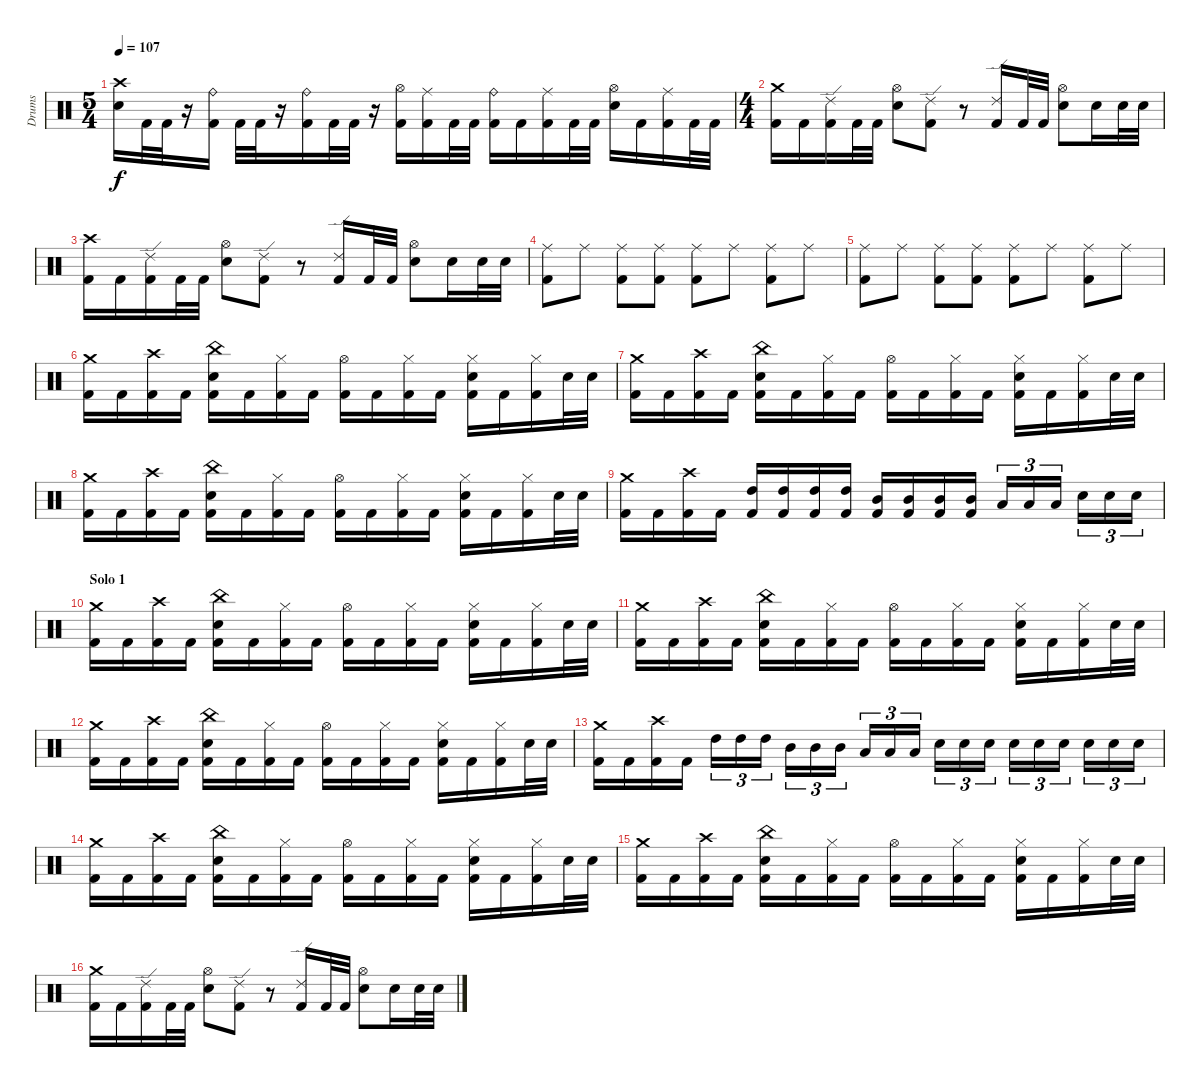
\track ("Drums" "Drums") {instrument percussion}
\staff {score}
\articulation defaults
\ts (5 4)
\tempo 107
\clef neutral
\ks c
("Crash high (hit)" "Snare (hit) 2").16{dy f} "Kick (hit) 2".32 "Kick (hit) 2".32 r.16 ("Ride (bell)" "Kick (hit) 2").16 "Kick (hit) 2".32 "Kick (hit) 2".32 r.16 ("Ride (bell)" "Kick (hit) 2").16 "Kick (hit) 2".32 "Kick (hit) 2".32 r.16 ("Hi-Hat (open)" "Kick (hit) 2").16 ("Ride (middle)" "Kick (hit) 2").16 "Kick (hit) 2".32 "Kick (hit) 2".32 ("Ride (bell)" "Kick (hit) 2").16 "Kick (hit) 2".16 ("Ride (middle)" "Kick (hit) 2").16 "Kick (hit) 2".32 "Kick (hit) 2".32 ("Hi-Hat (open)" "Snare (hit) 2").16 "Kick (hit) 2".16 ("Ride (middle)" "Kick (hit) 2").16 "Kick (hit) 2".32 "Kick (hit) 2".32 |
\ts (4 4)
("Crash medium (hit)" "Kick (hit) 2").16 "Kick (hit) 2".16 ("Ride (edge) 2" "Kick (hit) 2").16 "Kick (hit) 2".32 "Kick (hit) 2".32 ("Hi-Hat (open)" "Snare (hit) 2").8 ("Ride (edge) 2" "Kick (hit) 2").8 r.8 ("Ride (edge) 2" "Kick (hit) 2").16 "Kick (hit) 2".32 "Kick (hit) 2".32 ("Hi-Hat (open)" "Snare (hit) 2").8 "Electric Snare (hit)".16 "Electric Snare (hit)".32 "Electric Snare (hit)".32 |
("Crash high (hit)" "Kick (hit) 2").16 "Kick (hit) 2".16 ("Ride (edge) 2" "Kick (hit) 2").16 "Kick (hit) 2".32 "Kick (hit) 2".32 ("Hi-Hat (open)" "Snare (hit) 2").8 ("Ride (edge) 2" "Kick (hit) 2").8 r.8 ("Ride (edge) 2" "Kick (hit) 2").16 "Kick (hit) 2".32 "Kick (hit) 2".32 ("Hi-Hat (open)" "Snare (hit) 2").8 "Electric Snare (hit)".16 "Electric Snare (hit)".32 "Electric Snare (hit)".32 |
("Ride (middle)" "Kick (hit) 2").8 "Ride (middle)".8 ("Ride (middle)" "Kick (hit) 2").8 ("Ride (middle)" "Kick (hit) 2").8 ("Ride (middle)" "Kick (hit) 2").8 "Ride (middle)".8 ("Ride (middle)" "Kick (hit) 2").8 "Ride (middle)".8 |
("Ride (middle)" "Kick (hit) 2").8 "Ride (middle)".8 ("Ride (middle)" "Kick (hit) 2").8 ("Ride (middle)" "Kick (hit) 2").8 ("Ride (middle)" "Kick (hit) 2").8 "Ride (middle)".8 ("Ride (middle)" "Kick (hit) 2").8 "Ride (middle)".8 |
("Crash medium (hit)" "Kick (hit) 2").16 "Kick (hit) 2".16 ("Crash high (hit)" "Kick (hit) 2").16 "Kick (hit) 2".16 ("China (hit)" "Snare (hit) 2" "Kick (hit) 2").16 "Kick (hit) 2".16 ("Hi-Hat (closed)" "Kick (hit) 2").16 "Kick (hit) 2".16 ("Hi-Hat (open)" "Kick (hit) 2").16 "Kick (hit) 2".16 ("Hi-Hat (closed)" "Kick (hit) 2").16 "Kick (hit) 2".16 ("Hi-Hat (closed)" "Snare (hit) 2" "Kick (hit) 2").16 "Kick (hit) 2".16 ("Hi-Hat (closed)" "Kick (hit) 2").16 "Electric Snare (hit)".32 "Electric Snare (hit)".32 |
("Crash medium (hit)" "Kick (hit) 2").16 "Kick (hit) 2".16 ("Crash high (hit)" "Kick (hit) 2").16 "Kick (hit) 2".16 ("China (hit)" "Snare (hit) 2" "Kick (hit) 2").16 "Kick (hit) 2".16 ("Hi-Hat (closed)" "Kick (hit) 2").16 "Kick (hit) 2".16 ("Hi-Hat (open)" "Kick (hit) 2").16 "Kick (hit) 2".16 ("Hi-Hat (closed)" "Kick (hit) 2").16 "Kick (hit) 2".16 ("Hi-Hat (closed)" "Snare (hit) 2" "Kick (hit) 2").16 "Kick (hit) 2".16 ("Hi-Hat (closed)" "Kick (hit) 2").16 "Electric Snare (hit)".32 "Electric Snare (hit)".32 |
("Crash medium (hit)" "Kick (hit) 2").16 "Kick (hit) 2".16 ("Crash high (hit)" "Kick (hit) 2").16 "Kick (hit) 2".16 ("China (hit)" "Snare (hit) 2" "Kick (hit) 2").16 "Kick (hit) 2".16 ("Hi-Hat (closed)" "Kick (hit) 2").16 "Kick (hit) 2".16 ("Hi-Hat (open)" "Kick (hit) 2").16 "Kick (hit) 2".16 ("Hi-Hat (closed)" "Kick (hit) 2").16 "Kick (hit) 2".16 ("Hi-Hat (closed)" "Snare (hit) 2" "Kick (hit) 2").16 "Kick (hit) 2".16 ("Hi-Hat (closed)" "Kick (hit) 2").16 "Electric Snare (hit)".32 "Electric Snare (hit)".32 |
("Crash medium (hit)" "Kick (hit) 2").16 "Kick (hit) 2".16 ("Crash high (hit)" "Kick (hit) 2").16 "Kick (hit) 2".16 ("High Tom (hit)" "Kick (hit) 2").16 ("High Tom (hit)" "Kick (hit) 2").16 ("High Tom (hit)" "Kick (hit) 2").16 ("High Tom (hit)" "Kick (hit) 2").16 ("Mid Tom (hit)" "Kick (hit) 2").16 ("Mid Tom (hit)" "Kick (hit) 2").16 ("Mid Tom (hit)" "Kick (hit) 2").16 ("Mid Tom (hit)" "Kick (hit) 2").16 "Low Tom (hit)".16{tu (3 2)} "Low Tom (hit)".16{tu (3 2)} "Low Tom (hit)".16{tu (3 2)} "Snare (hit) 2".16{tu (3 2)} "Snare (hit) 2".16{tu (3 2)} "Snare (hit) 2".16{tu (3 2)} |
\section ("" "Solo 1")
("Crash medium (hit)" "Kick (hit) 2").16 "Kick (hit) 2".16 ("Crash high (hit)" "Kick (hit) 2").16 "Kick (hit) 2".16 ("China (hit)" "Snare (hit) 2" "Kick (hit) 2").16 "Kick (hit) 2".16 ("Hi-Hat (closed)" "Kick (hit) 2").16 "Kick (hit) 2".16 ("Hi-Hat (open)" "Kick (hit) 2").16 "Kick (hit) 2".16 ("Hi-Hat (closed)" "Kick (hit) 2").16 "Kick (hit) 2".16 ("Hi-Hat (closed)" "Snare (hit) 2" "Kick (hit) 2").16 "Kick (hit) 2".16 ("Hi-Hat (closed)" "Kick (hit) 2").16 "Electric Snare (hit)".32 "Electric Snare (hit)".32 |
("Crash medium (hit)" "Kick (hit) 2").16 "Kick (hit) 2".16 ("Crash high (hit)" "Kick (hit) 2").16 "Kick (hit) 2".16 ("China (hit)" "Snare (hit) 2" "Kick (hit) 2").16 "Kick (hit) 2".16 ("Hi-Hat (closed)" "Kick (hit) 2").16 "Kick (hit) 2".16 ("Hi-Hat (open)" "Kick (hit) 2").16 "Kick (hit) 2".16 ("Hi-Hat (closed)" "Kick (hit) 2").16 "Kick (hit) 2".16 ("Hi-Hat (closed)" "Snare (hit) 2" "Kick (hit) 2").16 "Kick (hit) 2".16 ("Hi-Hat (closed)" "Kick (hit) 2").16 "Electric Snare (hit)".32 "Electric Snare (hit)".32 |
("Crash medium (hit)" "Kick (hit) 2").16 "Kick (hit) 2".16 ("Crash high (hit)" "Kick (hit) 2").16 "Kick (hit) 2".16 ("China (hit)" "Snare (hit) 2" "Kick (hit) 2").16 "Kick (hit) 2".16 ("Hi-Hat (closed)" "Kick (hit) 2").16 "Kick (hit) 2".16 ("Hi-Hat (open)" "Kick (hit) 2").16 "Kick (hit) 2".16 ("Hi-Hat (closed)" "Kick (hit) 2").16 "Kick (hit) 2".16 ("Hi-Hat (closed)" "Snare (hit) 2" "Kick (hit) 2").16 "Kick (hit) 2".16 ("Hi-Hat (closed)" "Kick (hit) 2").16 "Electric Snare (hit)".32 "Electric Snare (hit)".32 |
("Crash medium (hit)" "Kick (hit) 2").16 "Kick (hit) 2".16 ("Crash high (hit)" "Kick (hit) 2").16 "Kick (hit) 2".16 "High Tom (hit)".16{tu (3 2)} "High Tom (hit)".16{tu (3 2)} "High Tom (hit)".16{tu (3 2)} "Mid Tom (hit)".16{tu (3 2)} "Mid Tom (hit)".16{tu (3 2)} "Mid Tom (hit)".16{tu (3 2)} "Low Tom (hit)".16{tu (3 2)} "Low Tom (hit)".16{tu (3 2)} "Low Tom (hit)".16{tu (3 2)} "Snare (hit) 2".16{tu (3 2)} "Snare (hit) 2".16{tu (3 2)} "Snare (hit) 2".16{tu (3 2)} "Snare (hit) 2".16{tu (3 2)} "Snare (hit) 2".16{tu (3 2)} "Snare (hit) 2".16{tu (3 2)} "Electric Snare (hit)".16{tu (3 2)} "Electric Snare (hit)".16{tu (3 2)} "Electric Snare (hit)".16{tu (3 2)} |
("Crash medium (hit)" "Kick (hit) 2").16 "Kick (hit) 2".16 ("Crash high (hit)" "Kick (hit) 2").16 "Kick (hit) 2".16 ("China (hit)" "Snare (hit) 2" "Kick (hit) 2").16 "Kick (hit) 2".16 ("Hi-Hat (closed)" "Kick (hit) 2").16 "Kick (hit) 2".16 ("Hi-Hat (open)" "Kick (hit) 2").16 "Kick (hit) 2".16 ("Hi-Hat (closed)" "Kick (hit) 2").16 "Kick (hit) 2".16 ("Hi-Hat (closed)" "Snare (hit) 2" "Kick (hit) 2").16 "Kick (hit) 2".16 ("Hi-Hat (closed)" "Kick (hit) 2").16 "Electric Snare (hit)".32 "Electric Snare (hit)".32 |
("Crash medium (hit)" "Kick (hit) 2").16 "Kick (hit) 2".16 ("Crash high (hit)" "Kick (hit) 2").16 "Kick (hit) 2".16 ("China (hit)" "Snare (hit) 2" "Kick (hit) 2").16 "Kick (hit) 2".16 ("Hi-Hat (closed)" "Kick (hit) 2").16 "Kick (hit) 2".16 ("Hi-Hat (open)" "Kick (hit) 2").16 "Kick (hit) 2".16 ("Hi-Hat (closed)" "Kick (hit) 2").16 "Kick (hit) 2".16 ("Hi-Hat (closed)" "Snare (hit) 2" "Kick (hit) 2").16 "Kick (hit) 2".16 ("Hi-Hat (closed)" "Kick (hit) 2").16 "Electric Snare (hit)".32 "Electric Snare (hit)".32 |
("Crash medium (hit)" "Kick (hit) 2").16 "Kick (hit) 2".16 ("Ride (edge) 2" "Kick (hit) 2").16 "Kick (hit) 2".32 "Kick (hit) 2".32 ("Hi-Hat (open)" "Snare (hit) 2").8 ("Ride (edge) 2" "Kick (hit) 2").8 r.8 ("Ride (edge) 2" "Kick (hit) 2").16 "Kick (hit) 2".32 "Kick (hit) 2".32 ("Hi-Hat (open)" "Snare (hit) 2").8 "Electric Snare (hit)".16 "Electric Snare (hit)".32 "Electric Snare (hit)".32
